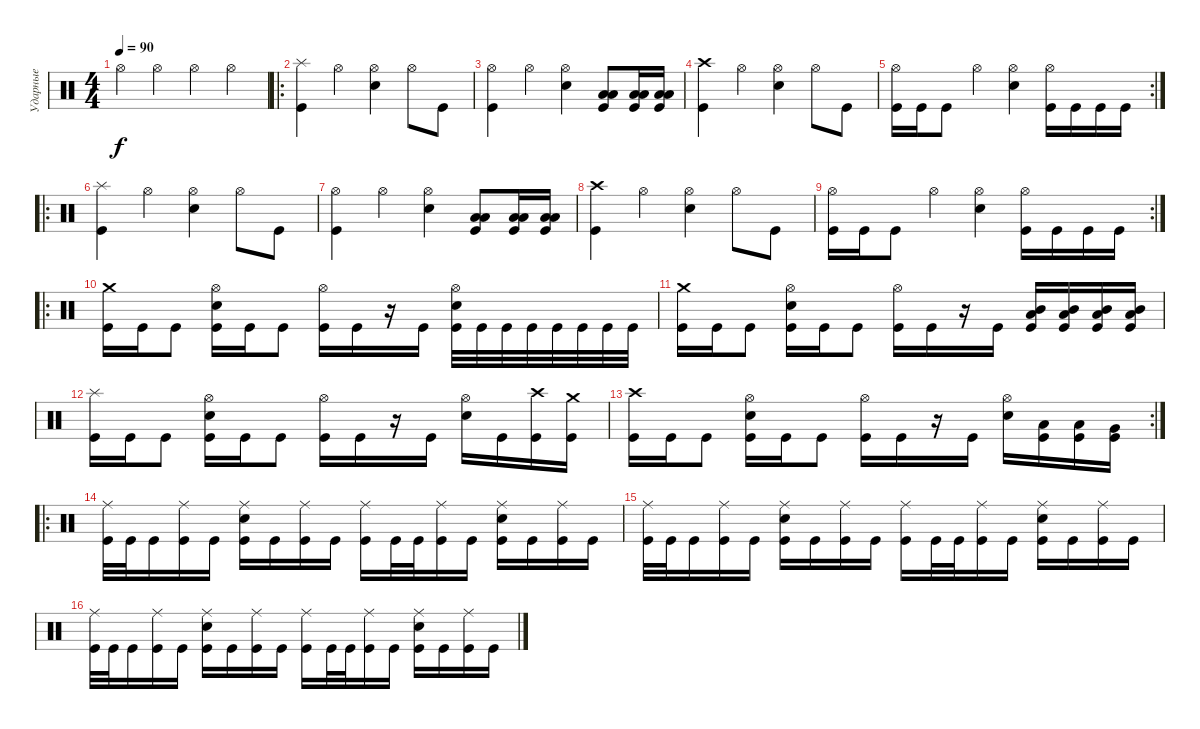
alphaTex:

\track ("Ударные" "Ударные") {instrument percussion}
\staff {score}
\articulation defaults
\ts (4 4)
\tempo 90
\clef neutral
\ks c "Hi-Hat (open)".4{dy f} "Hi-Hat (open)".4 "Hi-Hat (open)".4 "Hi-Hat (open)".4
|
\ro
("Splash (hit)" "Kick (hit)").4 "Hi-Hat (open)".4 ("Hi-Hat (open)" "Snare (hit) 2").4 "Hi-Hat (open)".8 "Kick (hit)".8 |
("Hi-Hat (open)" "Kick (hit)").4 "Hi-Hat (open)".4 ("Hi-Hat (open)" "Snare (hit) 2").4 ("Low Tom (hit)" "Low Floor Tom (hit)" "Kick (hit)").8 ("Low Tom (hit)" "Low Floor Tom (hit)" "Kick (hit)").16 ("Low Tom (hit)" "Low Floor Tom (hit)" "Kick (hit)").16 |
("Crash high (hit)" "Kick (hit)").4 "Hi-Hat (open)".4 ("Hi-Hat (open)" "Snare (hit) 2").4 "Hi-Hat (open)".8 "Kick (hit)".8 |
\rc 2
("Hi-Hat (open)" "Kick (hit)").16 "Kick (hit)".16 "Kick (hit)".8 "Hi-Hat (open)".4 ("Hi-Hat (open)" "Snare (hit) 2").4 ("Hi-Hat (open)" "Kick (hit)").16 "Kick (hit)".16 "Kick (hit)".16 "Kick (hit)".16 |
\ro
("Splash (hit)" "Kick (hit)").4 "Hi-Hat (open)".4 ("Hi-Hat (open)" "Snare (hit) 2").4 "Hi-Hat (open)".8 "Kick (hit)".8 |
("Hi-Hat (open)" "Kick (hit)").4 "Hi-Hat (open)".4 ("Hi-Hat (open)" "Snare (hit) 2").4 ("Low Tom (hit)" "Low Floor Tom (hit)" "Kick (hit)").8 ("Low Tom (hit)" "Low Floor Tom (hit)" "Kick (hit)").16 ("Low Tom (hit)" "Low Floor Tom (hit)" "Kick (hit)").16 |
("Crash high (hit)" "Kick (hit)").4 "Hi-Hat (open)".4 ("Hi-Hat (open)" "Snare (hit) 2").4 "Hi-Hat (open)".8 "Kick (hit)".8 |
\rc 2
("Hi-Hat (open)" "Kick (hit)").16 "Kick (hit)".16 "Kick (hit)".8 "Hi-Hat (open)".4 ("Hi-Hat (open)" "Snare (hit) 2").4 ("Hi-Hat (open)" "Kick (hit)").16 "Kick (hit)".16 "Kick (hit)".16 "Kick (hit)".16 |
\ro
("Crash medium (hit)" "Kick (hit)").16 "Kick (hit)".16 "Kick (hit)".8 ("Hi-Hat (open)" "Snare (hit) 2" "Kick (hit)").16 "Kick (hit)".16 "Kick (hit)".8 ("Hi-Hat (open)" "Kick (hit)").16 "Kick (hit)".16 r.16 "Kick (hit)".16 ("Hi-Hat (open)" "Snare (hit) 2" "Kick (hit)").32 "Kick (hit)".32 "Kick (hit)".32 "Kick (hit)".32 "Kick (hit)".32 "Kick (hit)".32 "Kick (hit)".32 "Kick (hit)".32 |
("Crash medium (hit)" "Kick (hit)").16 "Kick (hit)".16 "Kick (hit)".8 ("Hi-Hat (open)" "Snare (hit) 2" "Kick (hit)").16 "Kick (hit)".16 "Kick (hit)".8 ("Hi-Hat (open)" "Kick (hit)").16 "Kick (hit)".16 r.16 "Kick (hit)".16 ("Mid Tom (hit)" "Low Floor Tom (hit)" "Kick (hit)").16 ("Mid Tom (hit)" "Low Floor Tom (hit)" "Kick (hit)").16 ("Mid Tom (hit)" "Low Floor Tom (hit)" "Kick (hit)").16 ("Mid Tom (hit)" "Low Floor Tom (hit)" "Kick (hit)").16 |
("Splash (hit)" "Kick (hit)").16 "Kick (hit)".16 "Kick (hit)".8 ("Hi-Hat (open)" "Snare (hit) 2" "Kick (hit)").16 "Kick (hit)".16 "Kick (hit)".8 ("Hi-Hat (open)" "Kick (hit)").16 "Kick (hit)".16 r.16 "Kick (hit)".16 ("Hi-Hat (open)" "Snare (hit) 2").16 "Kick (hit)".16 ("Crash high (hit)" "Kick (hit)").16 ("Crash medium (hit)" "Kick (hit)").16 |
\rc 2
("Crash high (hit)" "Kick (hit)").16 "Kick (hit)".16 "Kick (hit)".8 ("Hi-Hat (open)" "Snare (hit) 2" "Kick (hit)").16 "Kick (hit)".16 "Kick (hit)".8 ("Hi-Hat (open)" "Kick (hit)").16 "Kick (hit)".16 r.16 "Kick (hit)".16 ("Hi-Hat (open)" "Snare (hit) 2").16 ("Low Tom (hit)" "Kick (hit)").16 ("Low Tom (hit)" "Kick (hit)").16 ("Very Low Tom (hit)" "Kick (hit)").16 |
\ro
("Ride (middle)" "Kick (hit)").32 "Kick (hit)".32 "Kick (hit)".16 ("Ride (middle)" "Kick (hit)").16 "Kick (hit)".16 ("Ride (middle)" "Snare (hit) 2" "Kick (hit)").16 "Kick (hit)".16 ("Ride (middle)" "Kick (hit)").16 "Kick (hit)".16 ("Ride (middle)" "Kick (hit)").16 "Kick (hit)".32 "Kick (hit)".32 ("Ride (middle)" "Kick (hit)").16 "Kick (hit)".16 ("Ride (middle)" "Snare (hit) 2" "Kick (hit)").16 "Kick (hit)".16 ("Ride (middle)" "Kick (hit)").16 "Kick (hit)".16 |
("Ride (middle)" "Kick (hit)").32 "Kick (hit)".32 "Kick (hit)".16 ("Ride (middle)" "Kick (hit)").16 "Kick (hit)".16 ("Ride (middle)" "Snare (hit) 2" "Kick (hit)").16 "Kick (hit)".16 ("Ride (middle)" "Kick (hit)").16 "Kick (hit)".16 ("Ride (middle)" "Kick (hit)").16 "Kick (hit)".32 "Kick (hit)".32 ("Ride (middle)" "Kick (hit)").16 "Kick (hit)".16 ("Ride (middle)" "Snare (hit) 2" "Kick (hit)").16 "Kick (hit)".16 ("Ride (middle)" "Kick (hit)").16 "Kick (hit)".16 |
("Ride (middle)" "Kick (hit)").32 "Kick (hit)".32 "Kick (hit)".16 ("Ride (middle)" "Kick (hit)").16 "Kick (hit)".16 ("Ride (middle)" "Snare (hit) 2" "Kick (hit)").16 "Kick (hit)".16 ("Ride (middle)" "Kick (hit)").16 "Kick (hit)".16 ("Ride (middle)" "Kick (hit)").16 "Kick (hit)".32 "Kick (hit)".32 ("Ride (middle)" "Kick (hit)").16 "Kick (hit)".16 ("Ride (middle)" "Snare (hit) 2" "Kick (hit)").16 "Kick (hit)".16 ("Ride (middle)" "Kick (hit)").16 "Kick (hit)".16
